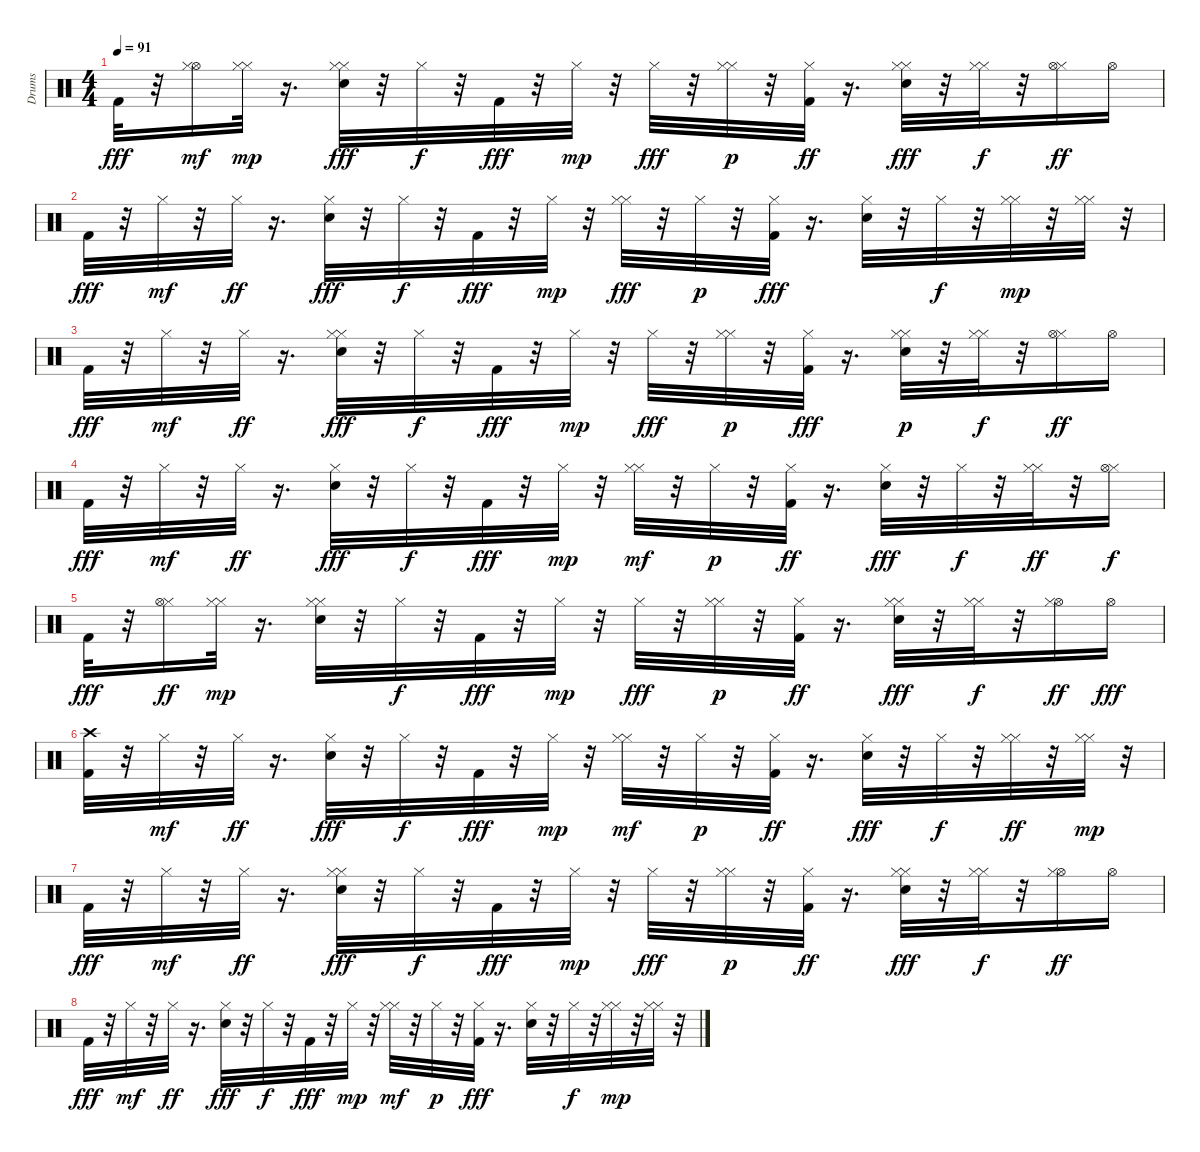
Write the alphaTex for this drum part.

\track ("Drums" "Drums") {instrument percussion}
\staff {score}
\articulation defaults
\ts (4 4)
\tempo 91
\clef neutral
\ks c "Kick (hit) 2".32{dy fff}
r.32 ("Hi-Hat (open)" "Hi-Hat (closed)").16{dy mf} ("Hi-Hat (closed)" "Hi-Hat (closed)").32{dy mp} r.16{d} ("Hi-Hat (closed)" "Hi-Hat (closed)" "Snare (hit) 2").32{dy fff} r.32 "Hi-Hat (closed)".32{dy f} r.32 "Kick (hit) 2".32{dy fff} r.32 "Hi-Hat (closed)".32{dy mp} r.32 "Hi-Hat (closed)".32{dy fff} r.32 ("Hi-Hat (closed)" "Hi-Hat (closed)").32{dy p} r.32 ("Kick (hit) 2" "Hi-Hat (closed)").32{dy ff} r.16{d} ("Snare (hit) 2" "Hi-Hat (closed)" "Hi-Hat (closed)").32{dy fff} r.32 ("Hi-Hat (closed)" "Hi-Hat (closed)").32{dy f} r.32 ("Hi-Hat (closed)" "Hi-Hat (open)").16{dy ff} "Hi-Hat (open)".16 |
"Kick (hit) 2".32{dy fff} r.32 "Hi-Hat (closed)".32{dy mf} r.32 "Hi-Hat (closed)".32{dy ff} r.16{d} ("Hi-Hat (closed)" "Snare (hit) 2").32{dy fff} r.32 "Hi-Hat (closed)".32{dy f} r.32 "Kick (hit) 2".32{dy fff} r.32 "Hi-Hat (closed)".32{dy mp} r.32 ("Hi-Hat (closed)" "Hi-Hat (closed)").32{dy fff} r.32 "Hi-Hat (closed)".32{dy p} r.32 ("Hi-Hat (closed)" "Kick (hit) 2").32{dy fff} r.16{d} ("Hi-Hat (closed)" "Snare (hit) 2").32 r.32 "Hi-Hat (closed)".32{dy f} r.32 ("Hi-Hat (closed)" "Hi-Hat (closed)").32{dy mp} r.32 ("Hi-Hat (closed)" "Hi-Hat (closed)").32 r.32 |
"Kick (hit) 2".32{dy fff} r.32 "Hi-Hat (closed)".32{dy mf} r.32 "Hi-Hat (closed)".32{dy ff} r.16{d} ("Hi-Hat (closed)" "Hi-Hat (closed)" "Snare (hit) 2").32{dy fff} r.32 "Hi-Hat (closed)".32{dy f} r.32 "Kick (hit) 2".32{dy fff} r.32 "Hi-Hat (closed)".32{dy mp} r.32 "Hi-Hat (closed)".32{dy fff} r.32 ("Hi-Hat (closed)" "Hi-Hat (closed)").32{dy p} r.32 ("Hi-Hat (closed)" "Kick (hit) 2").32{dy fff} r.16{d} ("Hi-Hat (closed)" "Snare (hit) 2" "Hi-Hat (closed)").32{dy p} r.32 ("Hi-Hat (closed)" "Hi-Hat (closed)").32{dy f} r.32 ("Hi-Hat (closed)" "Hi-Hat (open)").16{dy ff} "Hi-Hat (open)".16 |
"Kick (hit) 2".32{dy fff} r.32 "Hi-Hat (closed)".32{dy mf} r.32 "Hi-Hat (closed)".32{dy ff} r.16{d} ("Snare (hit) 2" "Hi-Hat (closed)").32{dy fff} r.32 "Hi-Hat (closed)".32{dy f} r.32 "Kick (hit) 2".32{dy fff} r.32 "Hi-Hat (closed)".32{dy mp} r.32 ("Hi-Hat (closed)" "Hi-Hat (closed)").32{dy mf} r.32 "Hi-Hat (closed)".32{dy p} r.32 ("Kick (hit) 2" "Hi-Hat (closed)").32{dy ff} r.16{d} ("Snare (hit) 2" "Hi-Hat (closed)").32{dy fff} r.32 "Hi-Hat (closed)".32{dy f} r.32 ("Hi-Hat (closed)" "Hi-Hat (closed)").32{dy ff} r.32 ("Hi-Hat (closed)" "Hi-Hat (open)").16{dy f} |
"Kick (hit) 2".32{dy fff} r.32 ("Hi-Hat (closed)" "Hi-Hat (open)").16{dy ff} ("Hi-Hat (closed)" "Hi-Hat (closed)").32{dy mp} r.16{d} ("Snare (hit) 2" "Hi-Hat (closed)" "Hi-Hat (closed)").32 r.32 "Hi-Hat (closed)".32{dy f} r.32 "Kick (hit) 2".32{dy fff} r.32 "Hi-Hat (closed)".32{dy mp} r.32 "Hi-Hat (closed)".32{dy fff} r.32 ("Hi-Hat (closed)" "Hi-Hat (closed)").32{dy p} r.32 ("Kick (hit) 2" "Hi-Hat (closed)").32{dy ff} r.16{d} ("Hi-Hat (closed)" "Snare (hit) 2" "Hi-Hat (closed)").32{dy fff} r.32 ("Hi-Hat (closed)" "Hi-Hat (closed)").32{dy f} r.32 ("Hi-Hat (open)" "Hi-Hat (closed)").16{dy ff} "Hi-Hat (open)".16{dy fff} |
("Crash high (hit)" "Kick (hit) 2").32 r.32 "Hi-Hat (closed)".32{dy mf} r.32 "Hi-Hat (closed)".32{dy ff} r.16{d} ("Hi-Hat (closed)" "Snare (hit) 2").32{dy fff} r.32 "Hi-Hat (closed)".32{dy f} r.32 "Kick (hit) 2".32{dy fff} r.32 "Hi-Hat (closed)".32{dy mp} r.32 ("Hi-Hat (closed)" "Hi-Hat (closed)").32{dy mf} r.32 "Hi-Hat (closed)".32{dy p} r.32 ("Kick (hit) 2" "Hi-Hat (closed)").32{dy ff} r.16{d} ("Snare (hit) 2" "Hi-Hat (closed)").32{dy fff} r.32 "Hi-Hat (closed)".32{dy f} r.32 ("Hi-Hat (closed)" "Hi-Hat (closed)").32{dy ff} r.32 ("Hi-Hat (closed)" "Hi-Hat (closed)").32{dy mp} r.32 |
"Kick (hit) 2".32{dy fff} r.32 "Hi-Hat (closed)".32{dy mf} r.32 "Hi-Hat (closed)".32{dy ff} r.16{d} ("Hi-Hat (closed)" "Snare (hit) 2" "Hi-Hat (closed)").32{dy fff} r.32 "Hi-Hat (closed)".32{dy f} r.32 "Kick (hit) 2".32{dy fff} r.32 "Hi-Hat (closed)".32{dy mp} r.32 "Hi-Hat (closed)".32{dy fff} r.32 ("Hi-Hat (closed)" "Hi-Hat (closed)").32{dy p} r.32 ("Kick (hit) 2" "Hi-Hat (closed)").32{dy ff} r.16{d} ("Hi-Hat (closed)" "Hi-Hat (closed)" "Snare (hit) 2").32{dy fff} r.32 ("Hi-Hat (closed)" "Hi-Hat (closed)").32{dy f} r.32 ("Hi-Hat (open)" "Hi-Hat (closed)").16{dy ff} "Hi-Hat (open)".16 |
"Kick (hit) 2".32{dy fff} r.32 "Hi-Hat (closed)".32{dy mf} r.32 "Hi-Hat (closed)".32{dy ff} r.16{d} ("Hi-Hat (closed)" "Snare (hit) 2").32{dy fff} r.32 "Hi-Hat (closed)".32{dy f} r.32 "Kick (hit) 2".32{dy fff} r.32 "Hi-Hat (closed)".32{dy mp} r.32 ("Hi-Hat (closed)" "Hi-Hat (closed)").32{dy mf} r.32 "Hi-Hat (closed)".32{dy p} r.32 ("Hi-Hat (closed)" "Kick (hit) 2").32{dy fff} r.16{d} ("Hi-Hat (closed)" "Snare (hit) 2").32 r.32 "Hi-Hat (closed)".32{dy f} r.32 ("Hi-Hat (closed)" "Hi-Hat (closed)").32{dy mp} r.32 ("Hi-Hat (closed)" "Hi-Hat (closed)").32 r.32
